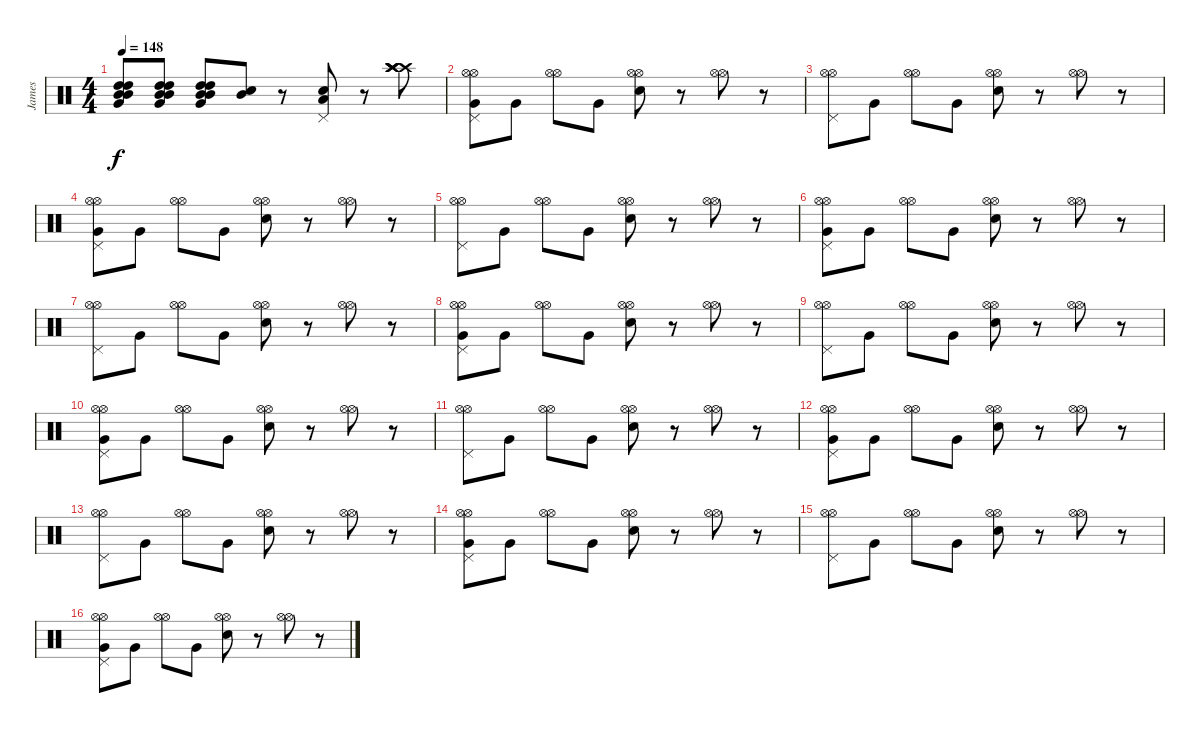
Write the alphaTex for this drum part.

\track ("James" "James") {instrument percussion}
\staff {score}
\articulation defaults
\ts (4 4)
\tempo 148
\clef neutral
\ks c
("Mid Tom (hit)" "Mid Tom (hit)" "High Tom (hit)" "Very Low Tom (hit)" "High Tom (hit)").8{dy f} ("Mid Tom (hit)" "Mid Tom (hit)" "High Tom (hit)" "Very Low Tom (hit)" "High Tom (hit)").8 ("Mid Tom (hit)" "Mid Tom (hit)" "High Tom (hit)" "Very Low Tom (hit)" "High Tom (hit)").8 ("Mid Tom (hit)" "Electric Snare (hit)").8 r.8 ("Low Floor Tom (hit)" "Pedal Hi-Hat (hit)" "Electric Snare (hit)").8 r.8 ("Crash high (hit)" "Crash high (hit)" "Crash high (hit)" "Crash high (hit)" "Crash high (hit)").8 |
("Hi-Hat (open)" "Pedal Hi-Hat (hit)" "Very Low Tom (hit)" "Hi-Hat (open)").8 "Very Low Tom (hit)".8 ("Hi-Hat (open)" "Hi-Hat (open)").8 "Very Low Tom (hit)".8 ("Hi-Hat (open)" "Electric Snare (hit)" "Hi-Hat (open)").8 r.8 ("Hi-Hat (open)" "Hi-Hat (open)").8 r.8 |
("Hi-Hat (open)" "Pedal Hi-Hat (hit)" "Hi-Hat (open)").8 "Very Low Tom (hit)".8 ("Hi-Hat (open)" "Hi-Hat (open)").8 "Very Low Tom (hit)".8 ("Hi-Hat (open)" "Electric Snare (hit)" "Hi-Hat (open)").8 r.8 ("Hi-Hat (open)" "Hi-Hat (open)").8 r.8 |
("Hi-Hat (open)" "Pedal Hi-Hat (hit)" "Very Low Tom (hit)" "Hi-Hat (open)").8 "Very Low Tom (hit)".8 ("Hi-Hat (open)" "Hi-Hat (open)").8 "Very Low Tom (hit)".8 ("Hi-Hat (open)" "Electric Snare (hit)" "Hi-Hat (open)").8 r.8 ("Hi-Hat (open)" "Hi-Hat (open)").8 r.8 |
("Hi-Hat (open)" "Pedal Hi-Hat (hit)" "Hi-Hat (open)").8 "Very Low Tom (hit)".8 ("Hi-Hat (open)" "Hi-Hat (open)").8 "Very Low Tom (hit)".8 ("Hi-Hat (open)" "Electric Snare (hit)" "Hi-Hat (open)").8 r.8 ("Hi-Hat (open)" "Hi-Hat (open)").8 r.8 |
("Hi-Hat (open)" "Pedal Hi-Hat (hit)" "Very Low Tom (hit)" "Hi-Hat (open)").8 "Very Low Tom (hit)".8 ("Hi-Hat (open)" "Hi-Hat (open)").8 "Very Low Tom (hit)".8 ("Hi-Hat (open)" "Electric Snare (hit)" "Hi-Hat (open)").8 r.8 ("Hi-Hat (open)" "Hi-Hat (open)").8 r.8 |
("Hi-Hat (open)" "Pedal Hi-Hat (hit)" "Hi-Hat (open)").8 "Very Low Tom (hit)".8 ("Hi-Hat (open)" "Hi-Hat (open)").8 "Very Low Tom (hit)".8 ("Hi-Hat (open)" "Electric Snare (hit)" "Hi-Hat (open)").8 r.8 ("Hi-Hat (open)" "Hi-Hat (open)").8 r.8 |
("Hi-Hat (open)" "Pedal Hi-Hat (hit)" "Very Low Tom (hit)" "Hi-Hat (open)").8 "Very Low Tom (hit)".8 ("Hi-Hat (open)" "Hi-Hat (open)").8 "Very Low Tom (hit)".8 ("Hi-Hat (open)" "Electric Snare (hit)" "Hi-Hat (open)").8 r.8 ("Hi-Hat (open)" "Hi-Hat (open)").8 r.8 |
("Hi-Hat (open)" "Pedal Hi-Hat (hit)" "Hi-Hat (open)").8 "Very Low Tom (hit)".8 ("Hi-Hat (open)" "Hi-Hat (open)").8 "Very Low Tom (hit)".8 ("Hi-Hat (open)" "Electric Snare (hit)" "Hi-Hat (open)").8 r.8 ("Hi-Hat (open)" "Hi-Hat (open)").8 r.8 |
("Hi-Hat (open)" "Pedal Hi-Hat (hit)" "Very Low Tom (hit)" "Hi-Hat (open)").8 "Very Low Tom (hit)".8 ("Hi-Hat (open)" "Hi-Hat (open)").8 "Very Low Tom (hit)".8 ("Hi-Hat (open)" "Electric Snare (hit)" "Hi-Hat (open)").8 r.8 ("Hi-Hat (open)" "Hi-Hat (open)").8 r.8 |
("Hi-Hat (open)" "Pedal Hi-Hat (hit)" "Hi-Hat (open)").8 "Very Low Tom (hit)".8 ("Hi-Hat (open)" "Hi-Hat (open)").8 "Very Low Tom (hit)".8 ("Hi-Hat (open)" "Electric Snare (hit)" "Hi-Hat (open)").8 r.8 ("Hi-Hat (open)" "Hi-Hat (open)").8 r.8 |
("Hi-Hat (open)" "Pedal Hi-Hat (hit)" "Very Low Tom (hit)" "Hi-Hat (open)").8 "Very Low Tom (hit)".8 ("Hi-Hat (open)" "Hi-Hat (open)").8 "Very Low Tom (hit)".8 ("Hi-Hat (open)" "Electric Snare (hit)" "Hi-Hat (open)").8 r.8 ("Hi-Hat (open)" "Hi-Hat (open)").8 r.8 |
("Hi-Hat (open)" "Pedal Hi-Hat (hit)" "Hi-Hat (open)").8 "Very Low Tom (hit)".8 ("Hi-Hat (open)" "Hi-Hat (open)").8 "Very Low Tom (hit)".8 ("Hi-Hat (open)" "Electric Snare (hit)" "Hi-Hat (open)").8 r.8 ("Hi-Hat (open)" "Hi-Hat (open)").8 r.8 |
("Hi-Hat (open)" "Pedal Hi-Hat (hit)" "Very Low Tom (hit)" "Hi-Hat (open)").8 "Very Low Tom (hit)".8 ("Hi-Hat (open)" "Hi-Hat (open)").8 "Very Low Tom (hit)".8 ("Hi-Hat (open)" "Electric Snare (hit)" "Hi-Hat (open)").8 r.8 ("Hi-Hat (open)" "Hi-Hat (open)").8 r.8 |
("Hi-Hat (open)" "Pedal Hi-Hat (hit)" "Hi-Hat (open)").8 "Very Low Tom (hit)".8 ("Hi-Hat (open)" "Hi-Hat (open)").8 "Very Low Tom (hit)".8 ("Hi-Hat (open)" "Electric Snare (hit)" "Hi-Hat (open)").8 r.8 ("Hi-Hat (open)" "Hi-Hat (open)").8 r.8 |
("Hi-Hat (open)" "Pedal Hi-Hat (hit)" "Very Low Tom (hit)" "Hi-Hat (open)").8 "Very Low Tom (hit)".8 ("Hi-Hat (open)" "Hi-Hat (open)").8 "Very Low Tom (hit)".8 ("Hi-Hat (open)" "Electric Snare (hit)" "Hi-Hat (open)").8 r.8 ("Hi-Hat (open)" "Hi-Hat (open)").8 r.8
